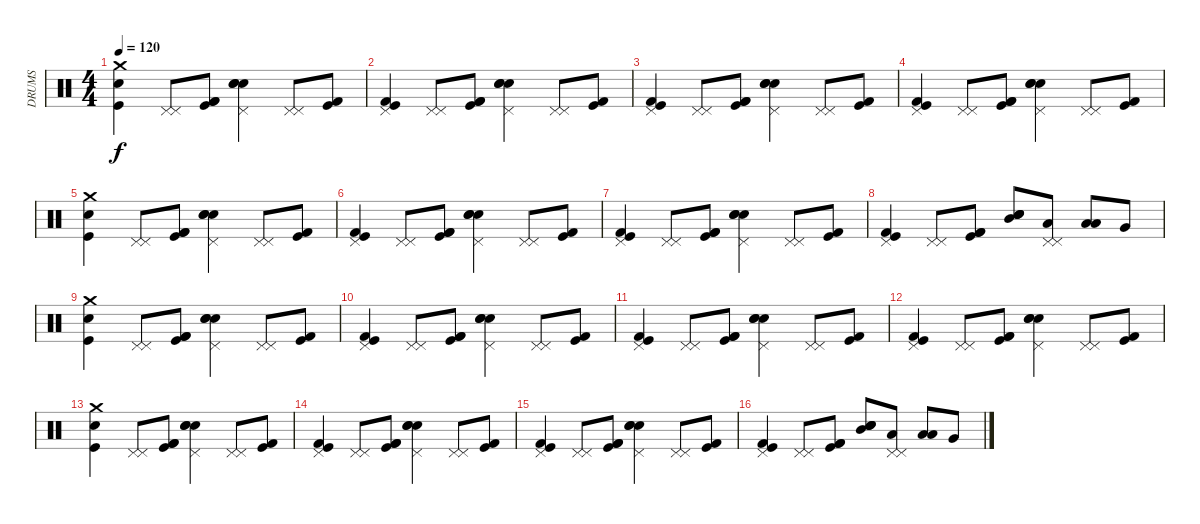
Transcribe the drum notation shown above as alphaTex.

\track ("DRUMS" "DRUMS") {instrument percussion}
\staff {score}
\articulation defaults
\ts (4 4)
\tempo 120
\clef neutral
\ks c
("Crash medium (hit)" "Snare (hit) 2" "Kick (hit)").4{dy f} ("Pedal Hi-Hat (hit)" "Pedal Hi-Hat (hit)").8 ("Kick (hit) 2" "Kick (hit)" "Kick (hit) 2").8 ("Snare (hit) 2" "Snare (hit) 2" "Pedal Hi-Hat (hit)" "Electric Snare (hit)").4 ("Pedal Hi-Hat (hit)" "Pedal Hi-Hat (hit)").8 ("Kick (hit)" "Kick (hit) 2").8 |
("Pedal Hi-Hat (hit)" "Kick (hit) 2" "Kick (hit)").4 ("Pedal Hi-Hat (hit)" "Pedal Hi-Hat (hit)").8 ("Kick (hit) 2" "Kick (hit)" "Kick (hit) 2").8 ("Snare (hit) 2" "Snare (hit) 2" "Pedal Hi-Hat (hit)" "Electric Snare (hit)").4 ("Pedal Hi-Hat (hit)" "Pedal Hi-Hat (hit)").8 ("Kick (hit)" "Kick (hit) 2").8 |
("Pedal Hi-Hat (hit)" "Kick (hit) 2" "Kick (hit)").4 ("Pedal Hi-Hat (hit)" "Pedal Hi-Hat (hit)").8 ("Kick (hit) 2" "Kick (hit)" "Kick (hit) 2").8 ("Snare (hit) 2" "Snare (hit) 2" "Pedal Hi-Hat (hit)" "Electric Snare (hit)").4 ("Pedal Hi-Hat (hit)" "Pedal Hi-Hat (hit)").8 ("Kick (hit)" "Kick (hit) 2").8 |
("Pedal Hi-Hat (hit)" "Kick (hit) 2" "Kick (hit)").4 ("Pedal Hi-Hat (hit)" "Pedal Hi-Hat (hit)").8 ("Kick (hit) 2" "Kick (hit)" "Kick (hit) 2").8 ("Snare (hit) 2" "Snare (hit) 2" "Pedal Hi-Hat (hit)" "Electric Snare (hit)").4 ("Pedal Hi-Hat (hit)" "Pedal Hi-Hat (hit)").8 ("Kick (hit)" "Kick (hit) 2").8 |
("Crash medium (hit)" "Snare (hit) 2" "Kick (hit)").4 ("Pedal Hi-Hat (hit)" "Pedal Hi-Hat (hit)").8 ("Kick (hit) 2" "Kick (hit)" "Kick (hit) 2").8 ("Snare (hit) 2" "Snare (hit) 2" "Pedal Hi-Hat (hit)" "Electric Snare (hit)").4 ("Pedal Hi-Hat (hit)" "Pedal Hi-Hat (hit)").8 ("Kick (hit)" "Kick (hit) 2").8 |
("Pedal Hi-Hat (hit)" "Kick (hit) 2" "Kick (hit)").4 ("Pedal Hi-Hat (hit)" "Pedal Hi-Hat (hit)").8 ("Kick (hit) 2" "Kick (hit)" "Kick (hit) 2").8 ("Snare (hit) 2" "Snare (hit) 2" "Pedal Hi-Hat (hit)" "Electric Snare (hit)").4 ("Pedal Hi-Hat (hit)" "Pedal Hi-Hat (hit)").8 ("Kick (hit)" "Kick (hit) 2").8 |
("Pedal Hi-Hat (hit)" "Kick (hit) 2" "Kick (hit)").4 ("Pedal Hi-Hat (hit)" "Pedal Hi-Hat (hit)").8 ("Kick (hit) 2" "Kick (hit)" "Kick (hit) 2").8 ("Snare (hit) 2" "Snare (hit) 2" "Pedal Hi-Hat (hit)" "Electric Snare (hit)").4 ("Pedal Hi-Hat (hit)" "Pedal Hi-Hat (hit)").8 ("Kick (hit)" "Kick (hit) 2").8 |
("Pedal Hi-Hat (hit)" "Kick (hit) 2" "Kick (hit)").4 ("Pedal Hi-Hat (hit)" "Pedal Hi-Hat (hit)").8 ("Kick (hit) 2" "Kick (hit)" "Kick (hit) 2").8 ("Snare (hit) 2" "Snare (hit) 2" "Mid Tom (hit)" "Electric Snare (hit)").8 ("Pedal Hi-Hat (hit)" "Pedal Hi-Hat (hit)" "Low Tom (hit)").8 ("Low Floor Tom (hit)" "Low Floor Tom (hit)").8 "Very Low Tom (hit)".8 |
("Crash medium (hit)" "Snare (hit) 2" "Kick (hit)").4 ("Pedal Hi-Hat (hit)" "Pedal Hi-Hat (hit)").8 ("Kick (hit) 2" "Kick (hit)" "Kick (hit) 2").8 ("Snare (hit) 2" "Snare (hit) 2" "Pedal Hi-Hat (hit)" "Electric Snare (hit)").4 ("Pedal Hi-Hat (hit)" "Pedal Hi-Hat (hit)").8 ("Kick (hit)" "Kick (hit) 2").8 |
("Pedal Hi-Hat (hit)" "Kick (hit) 2" "Kick (hit)").4 ("Pedal Hi-Hat (hit)" "Pedal Hi-Hat (hit)").8 ("Kick (hit) 2" "Kick (hit)" "Kick (hit) 2").8 ("Snare (hit) 2" "Snare (hit) 2" "Pedal Hi-Hat (hit)" "Electric Snare (hit)").4 ("Pedal Hi-Hat (hit)" "Pedal Hi-Hat (hit)").8 ("Kick (hit)" "Kick (hit) 2").8 |
("Pedal Hi-Hat (hit)" "Kick (hit) 2" "Kick (hit)").4 ("Pedal Hi-Hat (hit)" "Pedal Hi-Hat (hit)").8 ("Kick (hit) 2" "Kick (hit)" "Kick (hit) 2").8 ("Snare (hit) 2" "Snare (hit) 2" "Pedal Hi-Hat (hit)" "Electric Snare (hit)").4 ("Pedal Hi-Hat (hit)" "Pedal Hi-Hat (hit)").8 ("Kick (hit)" "Kick (hit) 2").8 |
("Pedal Hi-Hat (hit)" "Kick (hit) 2" "Kick (hit)").4 ("Pedal Hi-Hat (hit)" "Pedal Hi-Hat (hit)").8 ("Kick (hit) 2" "Kick (hit)" "Kick (hit) 2").8 ("Snare (hit) 2" "Snare (hit) 2" "Pedal Hi-Hat (hit)" "Electric Snare (hit)").4 ("Pedal Hi-Hat (hit)" "Pedal Hi-Hat (hit)").8 ("Kick (hit)" "Kick (hit) 2").8 |
("Crash medium (hit)" "Snare (hit) 2" "Kick (hit)").4 ("Pedal Hi-Hat (hit)" "Pedal Hi-Hat (hit)").8 ("Kick (hit) 2" "Kick (hit)" "Kick (hit) 2").8 ("Snare (hit) 2" "Snare (hit) 2" "Pedal Hi-Hat (hit)" "Electric Snare (hit)").4 ("Pedal Hi-Hat (hit)" "Pedal Hi-Hat (hit)").8 ("Kick (hit)" "Kick (hit) 2").8 |
("Pedal Hi-Hat (hit)" "Kick (hit) 2" "Kick (hit)").4 ("Pedal Hi-Hat (hit)" "Pedal Hi-Hat (hit)").8 ("Kick (hit) 2" "Kick (hit)" "Kick (hit) 2").8 ("Snare (hit) 2" "Snare (hit) 2" "Pedal Hi-Hat (hit)" "Electric Snare (hit)").4 ("Pedal Hi-Hat (hit)" "Pedal Hi-Hat (hit)").8 ("Kick (hit)" "Kick (hit) 2").8 |
("Pedal Hi-Hat (hit)" "Kick (hit) 2" "Kick (hit)").4 ("Pedal Hi-Hat (hit)" "Pedal Hi-Hat (hit)").8 ("Kick (hit) 2" "Kick (hit)" "Kick (hit) 2").8 ("Snare (hit) 2" "Snare (hit) 2" "Pedal Hi-Hat (hit)" "Electric Snare (hit)").4 ("Pedal Hi-Hat (hit)" "Pedal Hi-Hat (hit)").8 ("Kick (hit)" "Kick (hit) 2").8 |
("Pedal Hi-Hat (hit)" "Kick (hit) 2" "Kick (hit)").4 ("Pedal Hi-Hat (hit)" "Pedal Hi-Hat (hit)").8 ("Kick (hit) 2" "Kick (hit)" "Kick (hit) 2").8 ("Snare (hit) 2" "Snare (hit) 2" "Mid Tom (hit)" "Electric Snare (hit)").8 ("Pedal Hi-Hat (hit)" "Pedal Hi-Hat (hit)" "Low Tom (hit)").8 ("Low Floor Tom (hit)" "Low Floor Tom (hit)").8 "Very Low Tom (hit)".8
